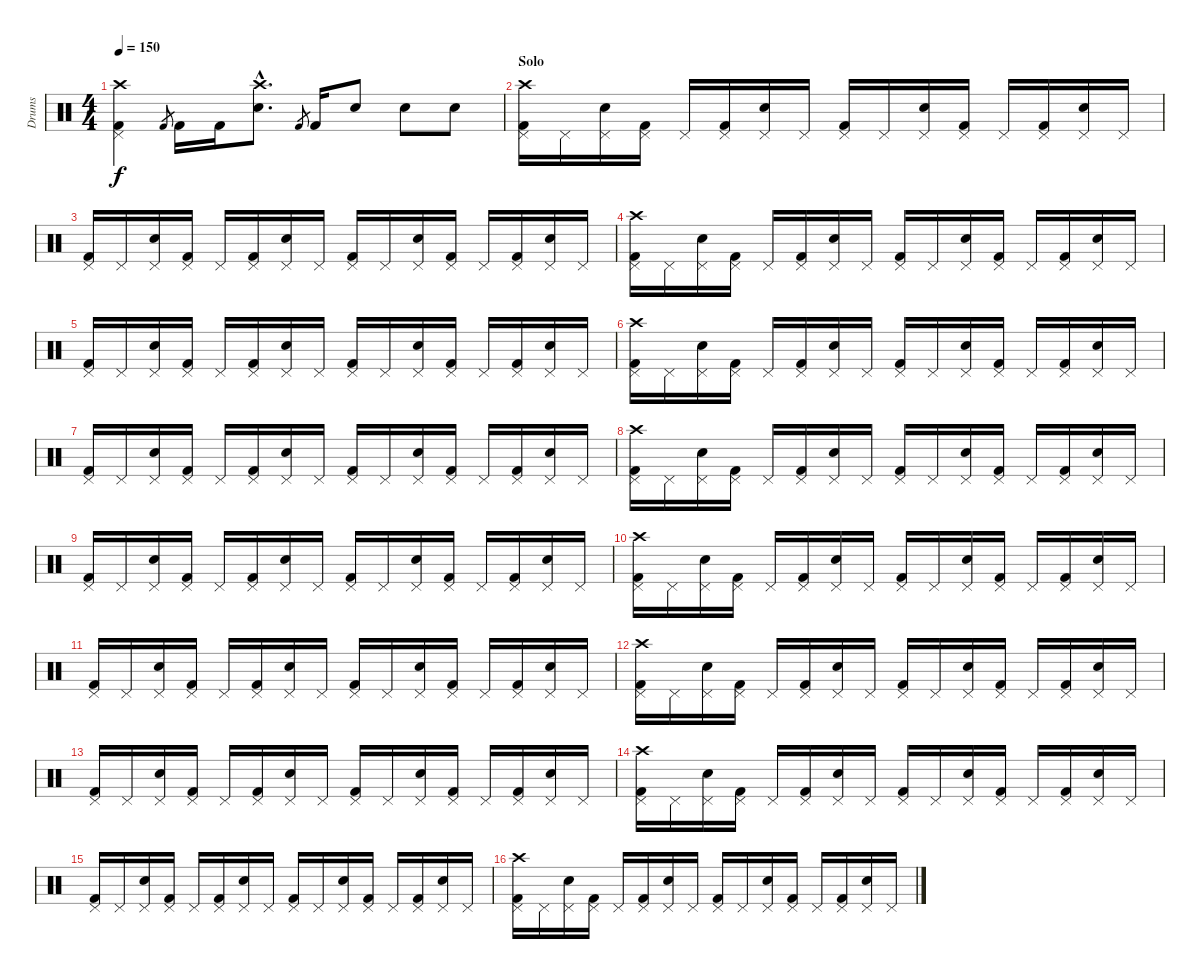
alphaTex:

\track ("Drums" "Drums") {instrument percussion}
\staff {score}
\articulation defaults
\ts (4 4)
\tempo 150
\clef neutral
\ks c
("Kick (hit) 2" "Pedal Hi-Hat (hit)" "Crash high (hit)").4{dy f} "Kick (hit) 2".8{gr} "Kick (hit) 2".16 "Kick (hit) 2".16 ("Snare (hit) 2"{hac} "Crash high (hit)"{hac}).8{d} "Kick (hit) 2".8{gr} "Kick (hit) 2".16 "Snare (hit) 2".8 "Snare (hit) 2".8 "Snare (hit) 2".8 |
\section ("" "Solo")
("Kick (hit) 2" "Pedal Hi-Hat (hit)" "Crash high (hit)").16 "Pedal Hi-Hat (hit)".16 ("Snare (hit) 2" "Pedal Hi-Hat (hit)").16 ("Kick (hit) 2" "Pedal Hi-Hat (hit)").16 "Pedal Hi-Hat (hit)".16 ("Kick (hit) 2" "Pedal Hi-Hat (hit)").16 ("Snare (hit) 2" "Pedal Hi-Hat (hit)").16 "Pedal Hi-Hat (hit)".16 ("Kick (hit) 2" "Pedal Hi-Hat (hit)").16 "Pedal Hi-Hat (hit)".16 ("Snare (hit) 2" "Pedal Hi-Hat (hit)").16 ("Kick (hit) 2" "Pedal Hi-Hat (hit)").16 "Pedal Hi-Hat (hit)".16 ("Kick (hit) 2" "Pedal Hi-Hat (hit)").16 ("Snare (hit) 2" "Pedal Hi-Hat (hit)").16 "Pedal Hi-Hat (hit)".16 |
("Kick (hit) 2" "Pedal Hi-Hat (hit)").16 "Pedal Hi-Hat (hit)".16 ("Snare (hit) 2" "Pedal Hi-Hat (hit)").16 ("Kick (hit) 2" "Pedal Hi-Hat (hit)").16 "Pedal Hi-Hat (hit)".16 ("Kick (hit) 2" "Pedal Hi-Hat (hit)").16 ("Snare (hit) 2" "Pedal Hi-Hat (hit)").16 "Pedal Hi-Hat (hit)".16 ("Kick (hit) 2" "Pedal Hi-Hat (hit)").16 "Pedal Hi-Hat (hit)".16 ("Snare (hit) 2" "Pedal Hi-Hat (hit)").16 ("Kick (hit) 2" "Pedal Hi-Hat (hit)").16 "Pedal Hi-Hat (hit)".16 ("Kick (hit) 2" "Pedal Hi-Hat (hit)").16 ("Snare (hit) 2" "Pedal Hi-Hat (hit)").16 "Pedal Hi-Hat (hit)".16 |
("Kick (hit) 2" "Pedal Hi-Hat (hit)" "Crash high (hit)").16 "Pedal Hi-Hat (hit)".16 ("Snare (hit) 2" "Pedal Hi-Hat (hit)").16 ("Kick (hit) 2" "Pedal Hi-Hat (hit)").16 "Pedal Hi-Hat (hit)".16 ("Kick (hit) 2" "Pedal Hi-Hat (hit)").16 ("Snare (hit) 2" "Pedal Hi-Hat (hit)").16 "Pedal Hi-Hat (hit)".16 ("Kick (hit) 2" "Pedal Hi-Hat (hit)").16 "Pedal Hi-Hat (hit)".16 ("Snare (hit) 2" "Pedal Hi-Hat (hit)").16 ("Kick (hit) 2" "Pedal Hi-Hat (hit)").16 "Pedal Hi-Hat (hit)".16 ("Kick (hit) 2" "Pedal Hi-Hat (hit)").16 ("Snare (hit) 2" "Pedal Hi-Hat (hit)").16 "Pedal Hi-Hat (hit)".16 |
("Kick (hit) 2" "Pedal Hi-Hat (hit)").16 "Pedal Hi-Hat (hit)".16 ("Snare (hit) 2" "Pedal Hi-Hat (hit)").16 ("Kick (hit) 2" "Pedal Hi-Hat (hit)").16 "Pedal Hi-Hat (hit)".16 ("Kick (hit) 2" "Pedal Hi-Hat (hit)").16 ("Snare (hit) 2" "Pedal Hi-Hat (hit)").16 "Pedal Hi-Hat (hit)".16 ("Kick (hit) 2" "Pedal Hi-Hat (hit)").16 "Pedal Hi-Hat (hit)".16 ("Snare (hit) 2" "Pedal Hi-Hat (hit)").16 ("Kick (hit) 2" "Pedal Hi-Hat (hit)").16 "Pedal Hi-Hat (hit)".16 ("Kick (hit) 2" "Pedal Hi-Hat (hit)").16 ("Snare (hit) 2" "Pedal Hi-Hat (hit)").16 "Pedal Hi-Hat (hit)".16 |
("Kick (hit) 2" "Pedal Hi-Hat (hit)" "Crash high (hit)").16 "Pedal Hi-Hat (hit)".16 ("Snare (hit) 2" "Pedal Hi-Hat (hit)").16 ("Kick (hit) 2" "Pedal Hi-Hat (hit)").16 "Pedal Hi-Hat (hit)".16 ("Kick (hit) 2" "Pedal Hi-Hat (hit)").16 ("Snare (hit) 2" "Pedal Hi-Hat (hit)").16 "Pedal Hi-Hat (hit)".16 ("Kick (hit) 2" "Pedal Hi-Hat (hit)").16 "Pedal Hi-Hat (hit)".16 ("Snare (hit) 2" "Pedal Hi-Hat (hit)").16 ("Kick (hit) 2" "Pedal Hi-Hat (hit)").16 "Pedal Hi-Hat (hit)".16 ("Kick (hit) 2" "Pedal Hi-Hat (hit)").16 ("Snare (hit) 2" "Pedal Hi-Hat (hit)").16 "Pedal Hi-Hat (hit)".16 |
("Kick (hit) 2" "Pedal Hi-Hat (hit)").16 "Pedal Hi-Hat (hit)".16 ("Snare (hit) 2" "Pedal Hi-Hat (hit)").16 ("Kick (hit) 2" "Pedal Hi-Hat (hit)").16 "Pedal Hi-Hat (hit)".16 ("Kick (hit) 2" "Pedal Hi-Hat (hit)").16 ("Snare (hit) 2" "Pedal Hi-Hat (hit)").16 "Pedal Hi-Hat (hit)".16 ("Kick (hit) 2" "Pedal Hi-Hat (hit)").16 "Pedal Hi-Hat (hit)".16 ("Snare (hit) 2" "Pedal Hi-Hat (hit)").16 ("Kick (hit) 2" "Pedal Hi-Hat (hit)").16 "Pedal Hi-Hat (hit)".16 ("Kick (hit) 2" "Pedal Hi-Hat (hit)").16 ("Snare (hit) 2" "Pedal Hi-Hat (hit)").16 "Pedal Hi-Hat (hit)".16 |
("Kick (hit) 2" "Pedal Hi-Hat (hit)" "Crash high (hit)").16 "Pedal Hi-Hat (hit)".16 ("Snare (hit) 2" "Pedal Hi-Hat (hit)").16 ("Kick (hit) 2" "Pedal Hi-Hat (hit)").16 "Pedal Hi-Hat (hit)".16 ("Kick (hit) 2" "Pedal Hi-Hat (hit)").16 ("Snare (hit) 2" "Pedal Hi-Hat (hit)").16 "Pedal Hi-Hat (hit)".16 ("Kick (hit) 2" "Pedal Hi-Hat (hit)").16 "Pedal Hi-Hat (hit)".16 ("Snare (hit) 2" "Pedal Hi-Hat (hit)").16 ("Kick (hit) 2" "Pedal Hi-Hat (hit)").16 "Pedal Hi-Hat (hit)".16 ("Kick (hit) 2" "Pedal Hi-Hat (hit)").16 ("Snare (hit) 2" "Pedal Hi-Hat (hit)").16 "Pedal Hi-Hat (hit)".16 |
("Kick (hit) 2" "Pedal Hi-Hat (hit)").16 "Pedal Hi-Hat (hit)".16 ("Snare (hit) 2" "Pedal Hi-Hat (hit)").16 ("Kick (hit) 2" "Pedal Hi-Hat (hit)").16 "Pedal Hi-Hat (hit)".16 ("Kick (hit) 2" "Pedal Hi-Hat (hit)").16 ("Snare (hit) 2" "Pedal Hi-Hat (hit)").16 "Pedal Hi-Hat (hit)".16 ("Kick (hit) 2" "Pedal Hi-Hat (hit)").16 "Pedal Hi-Hat (hit)".16 ("Snare (hit) 2" "Pedal Hi-Hat (hit)").16 ("Kick (hit) 2" "Pedal Hi-Hat (hit)").16 "Pedal Hi-Hat (hit)".16 ("Kick (hit) 2" "Pedal Hi-Hat (hit)").16 ("Snare (hit) 2" "Pedal Hi-Hat (hit)").16 "Pedal Hi-Hat (hit)".16 |
("Kick (hit) 2" "Pedal Hi-Hat (hit)" "Crash high (hit)").16 "Pedal Hi-Hat (hit)".16 ("Snare (hit) 2" "Pedal Hi-Hat (hit)").16 ("Kick (hit) 2" "Pedal Hi-Hat (hit)").16 "Pedal Hi-Hat (hit)".16 ("Kick (hit) 2" "Pedal Hi-Hat (hit)").16 ("Snare (hit) 2" "Pedal Hi-Hat (hit)").16 "Pedal Hi-Hat (hit)".16 ("Kick (hit) 2" "Pedal Hi-Hat (hit)").16 "Pedal Hi-Hat (hit)".16 ("Snare (hit) 2" "Pedal Hi-Hat (hit)").16 ("Kick (hit) 2" "Pedal Hi-Hat (hit)").16 "Pedal Hi-Hat (hit)".16 ("Kick (hit) 2" "Pedal Hi-Hat (hit)").16 ("Snare (hit) 2" "Pedal Hi-Hat (hit)").16 "Pedal Hi-Hat (hit)".16 |
("Kick (hit) 2" "Pedal Hi-Hat (hit)").16 "Pedal Hi-Hat (hit)".16 ("Snare (hit) 2" "Pedal Hi-Hat (hit)").16 ("Kick (hit) 2" "Pedal Hi-Hat (hit)").16 "Pedal Hi-Hat (hit)".16 ("Kick (hit) 2" "Pedal Hi-Hat (hit)").16 ("Snare (hit) 2" "Pedal Hi-Hat (hit)").16 "Pedal Hi-Hat (hit)".16 ("Kick (hit) 2" "Pedal Hi-Hat (hit)").16 "Pedal Hi-Hat (hit)".16 ("Snare (hit) 2" "Pedal Hi-Hat (hit)").16 ("Kick (hit) 2" "Pedal Hi-Hat (hit)").16 "Pedal Hi-Hat (hit)".16 ("Kick (hit) 2" "Pedal Hi-Hat (hit)").16 ("Snare (hit) 2" "Pedal Hi-Hat (hit)").16 "Pedal Hi-Hat (hit)".16 |
("Kick (hit) 2" "Pedal Hi-Hat (hit)" "Crash high (hit)").16 "Pedal Hi-Hat (hit)".16 ("Snare (hit) 2" "Pedal Hi-Hat (hit)").16 ("Kick (hit) 2" "Pedal Hi-Hat (hit)").16 "Pedal Hi-Hat (hit)".16 ("Kick (hit) 2" "Pedal Hi-Hat (hit)").16 ("Snare (hit) 2" "Pedal Hi-Hat (hit)").16 "Pedal Hi-Hat (hit)".16 ("Kick (hit) 2" "Pedal Hi-Hat (hit)").16 "Pedal Hi-Hat (hit)".16 ("Snare (hit) 2" "Pedal Hi-Hat (hit)").16 ("Kick (hit) 2" "Pedal Hi-Hat (hit)").16 "Pedal Hi-Hat (hit)".16 ("Kick (hit) 2" "Pedal Hi-Hat (hit)").16 ("Snare (hit) 2" "Pedal Hi-Hat (hit)").16 "Pedal Hi-Hat (hit)".16 |
("Kick (hit) 2" "Pedal Hi-Hat (hit)").16 "Pedal Hi-Hat (hit)".16 ("Snare (hit) 2" "Pedal Hi-Hat (hit)").16 ("Kick (hit) 2" "Pedal Hi-Hat (hit)").16 "Pedal Hi-Hat (hit)".16 ("Kick (hit) 2" "Pedal Hi-Hat (hit)").16 ("Snare (hit) 2" "Pedal Hi-Hat (hit)").16 "Pedal Hi-Hat (hit)".16 ("Kick (hit) 2" "Pedal Hi-Hat (hit)").16 "Pedal Hi-Hat (hit)".16 ("Snare (hit) 2" "Pedal Hi-Hat (hit)").16 ("Kick (hit) 2" "Pedal Hi-Hat (hit)").16 "Pedal Hi-Hat (hit)".16 ("Kick (hit) 2" "Pedal Hi-Hat (hit)").16 ("Snare (hit) 2" "Pedal Hi-Hat (hit)").16 "Pedal Hi-Hat (hit)".16 |
("Kick (hit) 2" "Pedal Hi-Hat (hit)" "Crash high (hit)").16 "Pedal Hi-Hat (hit)".16 ("Snare (hit) 2" "Pedal Hi-Hat (hit)").16 ("Kick (hit) 2" "Pedal Hi-Hat (hit)").16 "Pedal Hi-Hat (hit)".16 ("Kick (hit) 2" "Pedal Hi-Hat (hit)").16 ("Snare (hit) 2" "Pedal Hi-Hat (hit)").16 "Pedal Hi-Hat (hit)".16 ("Kick (hit) 2" "Pedal Hi-Hat (hit)").16 "Pedal Hi-Hat (hit)".16 ("Snare (hit) 2" "Pedal Hi-Hat (hit)").16 ("Kick (hit) 2" "Pedal Hi-Hat (hit)").16 "Pedal Hi-Hat (hit)".16 ("Kick (hit) 2" "Pedal Hi-Hat (hit)").16 ("Snare (hit) 2" "Pedal Hi-Hat (hit)").16 "Pedal Hi-Hat (hit)".16 |
("Kick (hit) 2" "Pedal Hi-Hat (hit)").16 "Pedal Hi-Hat (hit)".16 ("Snare (hit) 2" "Pedal Hi-Hat (hit)").16 ("Kick (hit) 2" "Pedal Hi-Hat (hit)").16 "Pedal Hi-Hat (hit)".16 ("Kick (hit) 2" "Pedal Hi-Hat (hit)").16 ("Snare (hit) 2" "Pedal Hi-Hat (hit)").16 "Pedal Hi-Hat (hit)".16 ("Kick (hit) 2" "Pedal Hi-Hat (hit)").16 "Pedal Hi-Hat (hit)".16 ("Snare (hit) 2" "Pedal Hi-Hat (hit)").16 ("Kick (hit) 2" "Pedal Hi-Hat (hit)").16 "Pedal Hi-Hat (hit)".16 ("Kick (hit) 2" "Pedal Hi-Hat (hit)").16 ("Snare (hit) 2" "Pedal Hi-Hat (hit)").16 "Pedal Hi-Hat (hit)".16 |
("Kick (hit) 2" "Pedal Hi-Hat (hit)" "Crash high (hit)").16 "Pedal Hi-Hat (hit)".16 ("Snare (hit) 2" "Pedal Hi-Hat (hit)").16 ("Kick (hit) 2" "Pedal Hi-Hat (hit)").16 "Pedal Hi-Hat (hit)".16 ("Kick (hit) 2" "Pedal Hi-Hat (hit)").16 ("Snare (hit) 2" "Pedal Hi-Hat (hit)").16 "Pedal Hi-Hat (hit)".16 ("Kick (hit) 2" "Pedal Hi-Hat (hit)").16 "Pedal Hi-Hat (hit)".16 ("Snare (hit) 2" "Pedal Hi-Hat (hit)").16 ("Kick (hit) 2" "Pedal Hi-Hat (hit)").16 "Pedal Hi-Hat (hit)".16 ("Kick (hit) 2" "Pedal Hi-Hat (hit)").16 ("Snare (hit) 2" "Pedal Hi-Hat (hit)").16 "Pedal Hi-Hat (hit)".16
